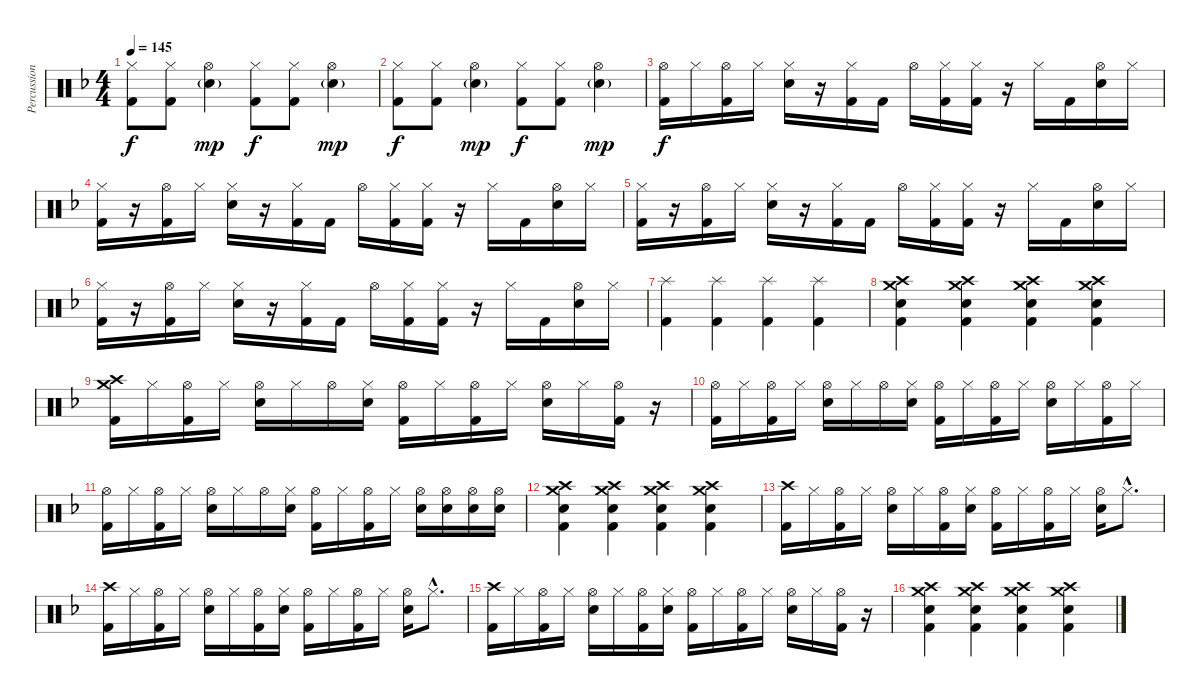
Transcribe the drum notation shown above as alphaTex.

\track ("Percussion" "Percussion") {instrument percussion}
\staff {score}
\articulation defaults
\ts (4 4)
\tempo 145
\clef neutral
\ks f
("Hi-Hat (closed)" "Kick (hit) 2").8{dy f} ("Hi-Hat (closed)" "Kick (hit) 2").8 ("Hi-Hat (open)" "Electric Snare (hit)"{g}).4{dy mp} ("Hi-Hat (closed)" "Kick (hit) 2").8{dy f} ("Hi-Hat (closed)" "Kick (hit) 2").8 ("Hi-Hat (open)" "Electric Snare (hit)"{g}).4{dy mp} |
("Hi-Hat (closed)" "Kick (hit) 2").8{dy f} ("Hi-Hat (closed)" "Kick (hit) 2").8 ("Hi-Hat (open)" "Electric Snare (hit)"{g}).4{dy mp} ("Hi-Hat (closed)" "Kick (hit) 2").8{dy f} ("Hi-Hat (closed)" "Kick (hit) 2").8 ("Hi-Hat (open)" "Electric Snare (hit)"{g}).4{dy mp} |
("Hi-Hat (open)" "Kick (hit) 2").16{dy f} "Hi-Hat (closed)".16 ("Hi-Hat (open)" "Kick (hit) 2").16 "Hi-Hat (closed)".16 ("Hi-Hat (closed)" "Electric Snare (hit)").16 r.16 ("Hi-Hat (closed)" "Kick (hit) 2").16 "Kick (hit) 2".16 "Hi-Hat (open)".16 ("Hi-Hat (closed)" "Kick (hit) 2").16 ("Hi-Hat (closed)" "Kick (hit) 2").16 r.16 "Hi-Hat (closed)".16 "Kick (hit) 2".16 ("Hi-Hat (open)" "Electric Snare (hit)").16 "Hi-Hat (closed)".16 |
("Hi-Hat (closed)" "Kick (hit) 2").16 r.16 ("Hi-Hat (open)" "Kick (hit) 2").16 "Hi-Hat (closed)".16 ("Hi-Hat (closed)" "Electric Snare (hit)").16 r.16 ("Hi-Hat (closed)" "Kick (hit) 2").16 "Kick (hit) 2".16 "Hi-Hat (open)".16 ("Hi-Hat (closed)" "Kick (hit) 2").16 ("Hi-Hat (closed)" "Kick (hit) 2").16 r.16 "Hi-Hat (closed)".16 "Kick (hit) 2".16 ("Hi-Hat (open)" "Electric Snare (hit)").16 "Hi-Hat (closed)".16 |
("Hi-Hat (closed)" "Kick (hit) 2").16 r.16 ("Hi-Hat (open)" "Kick (hit) 2").16 "Hi-Hat (closed)".16 ("Hi-Hat (closed)" "Electric Snare (hit)").16 r.16 ("Hi-Hat (closed)" "Kick (hit) 2").16 "Kick (hit) 2".16 "Hi-Hat (open)".16 ("Hi-Hat (closed)" "Kick (hit) 2").16 ("Hi-Hat (closed)" "Kick (hit) 2").16 r.16 "Hi-Hat (closed)".16 "Kick (hit) 2".16 ("Hi-Hat (open)" "Electric Snare (hit)").16 "Hi-Hat (closed)".16 |
("Hi-Hat (closed)" "Kick (hit) 2").16 r.16 ("Hi-Hat (open)" "Kick (hit) 2").16 "Hi-Hat (closed)".16 ("Hi-Hat (closed)" "Electric Snare (hit)").16 r.16 ("Hi-Hat (closed)" "Kick (hit) 2").16 "Kick (hit) 2".16 "Hi-Hat (open)".16 ("Hi-Hat (closed)" "Kick (hit) 2").16 ("Hi-Hat (closed)" "Kick (hit) 2").16 r.16 "Hi-Hat (closed)".16 "Kick (hit) 2".16 ("Hi-Hat (open)" "Electric Snare (hit)").16 "Hi-Hat (closed)".16 |
("Splash (hit)" "Kick (hit) 2").4 ("Splash (hit)" "Kick (hit) 2").4 ("Splash (hit)" "Kick (hit) 2").4 ("Splash (hit)" "Kick (hit) 2").4 |
("Crash high (hit)" "Crash medium (hit)" "Electric Snare (hit)" "Kick (hit) 2").4 ("Crash high (hit)" "Crash medium (hit)" "Electric Snare (hit)" "Kick (hit) 2").4 ("Crash high (hit)" "Crash medium (hit)" "Electric Snare (hit)" "Kick (hit) 2").4 ("Crash high (hit)" "Crash medium (hit)" "Electric Snare (hit)" "Kick (hit) 2").4 |
("Crash high (hit)" "Crash medium (hit)" "Kick (hit) 2").16 "Hi-Hat (closed)".16 ("Hi-Hat (open)" "Kick (hit) 2").16 "Hi-Hat (closed)".16 ("Hi-Hat (open)" "Electric Snare (hit)").16 "Hi-Hat (closed)".16 "Hi-Hat (open)".16 ("Hi-Hat (closed)" "Electric Snare (hit)").16 ("Hi-Hat (open)" "Kick (hit) 2").16 "Hi-Hat (closed)".16 ("Hi-Hat (open)" "Kick (hit) 2").16 "Hi-Hat (closed)".16 ("Hi-Hat (open)" "Electric Snare (hit)").16 "Hi-Hat (closed)".16 ("Hi-Hat (open)" "Kick (hit) 2").16 r.16 |
("Hi-Hat (open)" "Kick (hit) 2").16 "Hi-Hat (closed)".16 ("Hi-Hat (open)" "Kick (hit) 2").16 "Hi-Hat (closed)".16 ("Hi-Hat (open)" "Electric Snare (hit)").16 "Hi-Hat (closed)".16 "Hi-Hat (open)".16 ("Hi-Hat (closed)" "Electric Snare (hit)").16 ("Hi-Hat (open)" "Kick (hit) 2").16 "Hi-Hat (closed)".16 ("Hi-Hat (open)" "Kick (hit) 2").16 "Hi-Hat (closed)".16 ("Hi-Hat (open)" "Electric Snare (hit)").16 "Hi-Hat (closed)".16 ("Hi-Hat (open)" "Kick (hit) 2").16 "Hi-Hat (closed)".16 |
("Hi-Hat (open)" "Kick (hit) 2").16 "Hi-Hat (closed)".16 ("Hi-Hat (open)" "Kick (hit) 2").16 "Hi-Hat (closed)".16 ("Hi-Hat (open)" "Electric Snare (hit)").16 "Hi-Hat (closed)".16 "Hi-Hat (open)".16 ("Hi-Hat (closed)" "Electric Snare (hit)").16 ("Hi-Hat (open)" "Kick (hit) 2").16 "Hi-Hat (closed)".16 ("Hi-Hat (open)" "Kick (hit) 2").16 "Hi-Hat (closed)".16 ("Hi-Hat (open)" "Electric Snare (hit)").16 ("Hi-Hat (open)" "Electric Snare (hit)").16 ("Hi-Hat (open)" "Electric Snare (hit)").16 ("Hi-Hat (open)" "Electric Snare (hit)").16 |
("Crash high (hit)" "Crash medium (hit)" "Electric Snare (hit)" "Kick (hit) 2").4 ("Crash high (hit)" "Crash medium (hit)" "Electric Snare (hit)" "Kick (hit) 2").4 ("Crash high (hit)" "Crash medium (hit)" "Electric Snare (hit)" "Kick (hit) 2").4 ("Crash high (hit)" "Crash medium (hit)" "Electric Snare (hit)" "Kick (hit) 2").4 |
("Crash high (hit)" "Kick (hit) 2").16 "Hi-Hat (closed)".16 ("Hi-Hat (open)" "Kick (hit) 2").16 "Hi-Hat (closed)".16 ("Hi-Hat (open)" "Electric Snare (hit)").16 "Hi-Hat (closed)".16 ("Hi-Hat (open)" "Kick (hit) 2").16 ("Hi-Hat (closed)" "Electric Snare (hit)").16 ("Hi-Hat (open)" "Kick (hit) 2").16 "Hi-Hat (closed)".16 ("Hi-Hat (open)" "Kick (hit) 2").16 "Hi-Hat (closed)".16 ("Hi-Hat (open)" "Electric Snare (hit)").16 "Hi-Hat (closed)"{hac}.8{d} |
("Crash high (hit)" "Kick (hit) 2").16 "Hi-Hat (closed)".16 ("Hi-Hat (open)" "Kick (hit) 2").16 "Hi-Hat (closed)".16 ("Hi-Hat (open)" "Electric Snare (hit)").16 "Hi-Hat (closed)".16 ("Hi-Hat (open)" "Kick (hit) 2").16 ("Hi-Hat (closed)" "Electric Snare (hit)").16 ("Hi-Hat (open)" "Kick (hit) 2").16 "Hi-Hat (closed)".16 ("Hi-Hat (open)" "Kick (hit) 2").16 "Hi-Hat (closed)".16 ("Hi-Hat (open)" "Electric Snare (hit)").16 "Hi-Hat (closed)"{hac}.8{d} |
("Crash high (hit)" "Kick (hit) 2").16 "Hi-Hat (closed)".16 ("Hi-Hat (open)" "Kick (hit) 2").16 "Hi-Hat (closed)".16 ("Hi-Hat (open)" "Electric Snare (hit)").16 "Hi-Hat (closed)".16 ("Hi-Hat (open)" "Kick (hit) 2").16 ("Hi-Hat (closed)" "Electric Snare (hit)").16 ("Hi-Hat (open)" "Kick (hit) 2").16 "Hi-Hat (closed)".16 ("Hi-Hat (open)" "Kick (hit) 2").16 "Hi-Hat (closed)".16 ("Hi-Hat (open)" "Electric Snare (hit)").16 "Hi-Hat (closed)".16 ("Hi-Hat (open)" "Kick (hit) 2").16 r.16 |
("Crash high (hit)" "Crash medium (hit)" "Electric Snare (hit)" "Kick (hit) 2").4 ("Crash high (hit)" "Crash medium (hit)" "Electric Snare (hit)" "Kick (hit) 2").4 ("Crash high (hit)" "Crash medium (hit)" "Electric Snare (hit)" "Kick (hit) 2").4 ("Crash high (hit)" "Crash medium (hit)" "Electric Snare (hit)" "Kick (hit) 2").4
